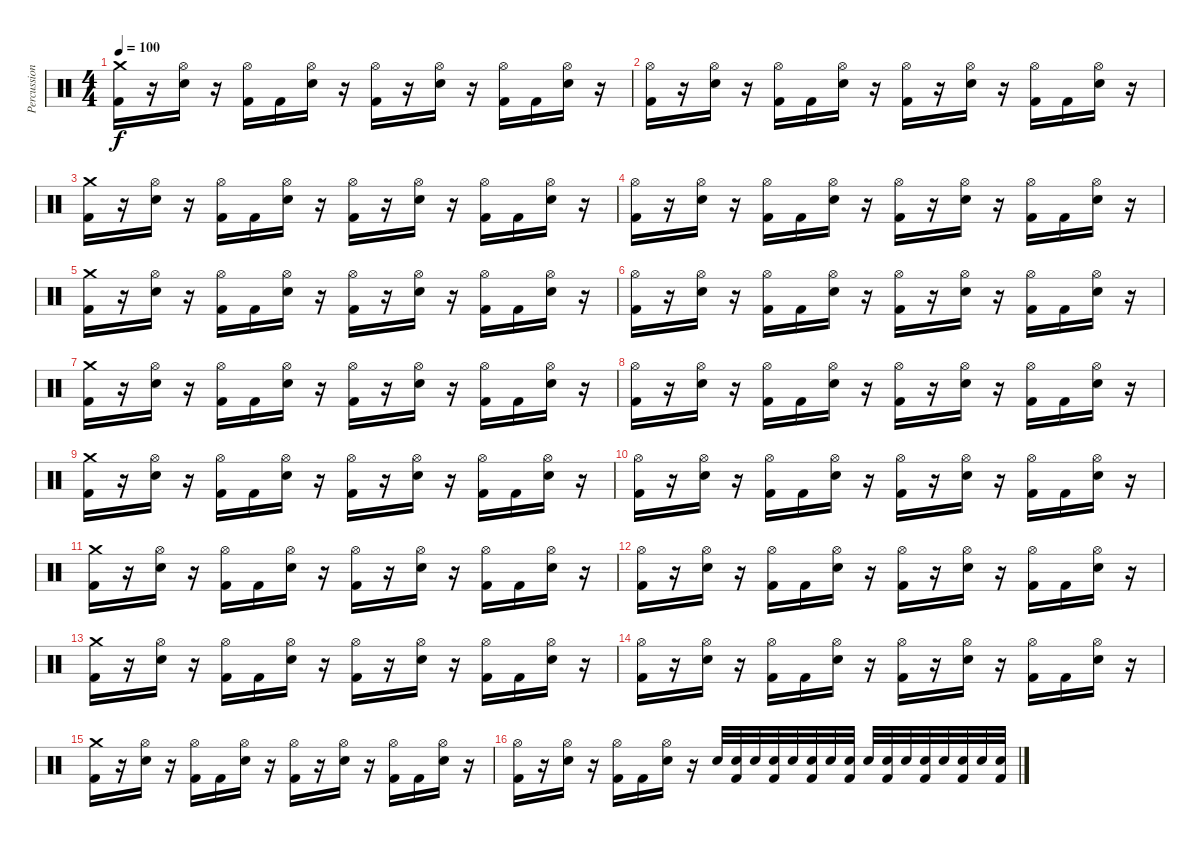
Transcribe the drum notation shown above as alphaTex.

\track ("Percussion" "Percussion") {instrument percussion}
\staff {score}
\articulation defaults
\ts (4 4)
\tempo 100
\clef neutral
\ks c
("Crash medium (hit)" "Kick (hit) 2").16{dy f} r.16 ("Hi-Hat (open)" "Electric Snare (hit)").16 r.16 ("Hi-Hat (open)" "Kick (hit) 2").16 "Kick (hit) 2".16 ("Hi-Hat (open)" "Electric Snare (hit)").16 r.16 ("Hi-Hat (open)" "Kick (hit) 2").16 r.16 ("Hi-Hat (open)" "Electric Snare (hit)").16 r.16 ("Hi-Hat (open)" "Kick (hit) 2").16 "Kick (hit) 2".16 ("Hi-Hat (open)" "Electric Snare (hit)").16 r.16 |
("Hi-Hat (open)" "Kick (hit) 2").16 r.16 ("Hi-Hat (open)" "Electric Snare (hit)").16 r.16 ("Hi-Hat (open)" "Kick (hit) 2").16 "Kick (hit) 2".16 ("Hi-Hat (open)" "Electric Snare (hit)").16 r.16 ("Hi-Hat (open)" "Kick (hit) 2").16 r.16 ("Hi-Hat (open)" "Electric Snare (hit)").16 r.16 ("Hi-Hat (open)" "Kick (hit) 2").16 "Kick (hit) 2".16 ("Hi-Hat (open)" "Electric Snare (hit)").16 r.16 |
("Crash medium (hit)" "Kick (hit) 2").16 r.16 ("Hi-Hat (open)" "Electric Snare (hit)").16 r.16 ("Hi-Hat (open)" "Kick (hit) 2").16 "Kick (hit) 2".16 ("Hi-Hat (open)" "Electric Snare (hit)").16 r.16 ("Hi-Hat (open)" "Kick (hit) 2").16 r.16 ("Hi-Hat (open)" "Electric Snare (hit)").16 r.16 ("Hi-Hat (open)" "Kick (hit) 2").16 "Kick (hit) 2".16 ("Hi-Hat (open)" "Electric Snare (hit)").16 r.16 |
("Hi-Hat (open)" "Kick (hit) 2").16 r.16 ("Hi-Hat (open)" "Electric Snare (hit)").16 r.16 ("Hi-Hat (open)" "Kick (hit) 2").16 "Kick (hit) 2".16 ("Hi-Hat (open)" "Electric Snare (hit)").16 r.16 ("Hi-Hat (open)" "Kick (hit) 2").16 r.16 ("Hi-Hat (open)" "Electric Snare (hit)").16 r.16 ("Hi-Hat (open)" "Kick (hit) 2").16 "Kick (hit) 2".16 ("Hi-Hat (open)" "Electric Snare (hit)").16 r.16 |
("Crash medium (hit)" "Kick (hit) 2").16 r.16 ("Hi-Hat (open)" "Electric Snare (hit)").16 r.16 ("Hi-Hat (open)" "Kick (hit) 2").16 "Kick (hit) 2".16 ("Hi-Hat (open)" "Electric Snare (hit)").16 r.16 ("Hi-Hat (open)" "Kick (hit) 2").16 r.16 ("Hi-Hat (open)" "Electric Snare (hit)").16 r.16 ("Hi-Hat (open)" "Kick (hit) 2").16 "Kick (hit) 2".16 ("Hi-Hat (open)" "Electric Snare (hit)").16 r.16 |
("Hi-Hat (open)" "Kick (hit) 2").16 r.16 ("Hi-Hat (open)" "Electric Snare (hit)").16 r.16 ("Hi-Hat (open)" "Kick (hit) 2").16 "Kick (hit) 2".16 ("Hi-Hat (open)" "Electric Snare (hit)").16 r.16 ("Hi-Hat (open)" "Kick (hit) 2").16 r.16 ("Hi-Hat (open)" "Electric Snare (hit)").16 r.16 ("Hi-Hat (open)" "Kick (hit) 2").16 "Kick (hit) 2".16 ("Hi-Hat (open)" "Electric Snare (hit)").16 r.16 |
("Crash medium (hit)" "Kick (hit) 2").16 r.16 ("Hi-Hat (open)" "Electric Snare (hit)").16 r.16 ("Hi-Hat (open)" "Kick (hit) 2").16 "Kick (hit) 2".16 ("Hi-Hat (open)" "Electric Snare (hit)").16 r.16 ("Hi-Hat (open)" "Kick (hit) 2").16 r.16 ("Hi-Hat (open)" "Electric Snare (hit)").16 r.16 ("Hi-Hat (open)" "Kick (hit) 2").16 "Kick (hit) 2".16 ("Hi-Hat (open)" "Electric Snare (hit)").16 r.16 |
("Hi-Hat (open)" "Kick (hit) 2").16 r.16 ("Hi-Hat (open)" "Electric Snare (hit)").16 r.16 ("Hi-Hat (open)" "Kick (hit) 2").16 "Kick (hit) 2".16 ("Hi-Hat (open)" "Electric Snare (hit)").16 r.16 ("Hi-Hat (open)" "Kick (hit) 2").16 r.16 ("Hi-Hat (open)" "Electric Snare (hit)").16 r.16 ("Hi-Hat (open)" "Kick (hit) 2").16 "Kick (hit) 2".16 ("Hi-Hat (open)" "Electric Snare (hit)").16 r.16 |
("Crash medium (hit)" "Kick (hit) 2").16 r.16 ("Hi-Hat (open)" "Electric Snare (hit)").16 r.16 ("Hi-Hat (open)" "Kick (hit) 2").16 "Kick (hit) 2".16 ("Hi-Hat (open)" "Electric Snare (hit)").16 r.16 ("Hi-Hat (open)" "Kick (hit) 2").16 r.16 ("Hi-Hat (open)" "Electric Snare (hit)").16 r.16 ("Hi-Hat (open)" "Kick (hit) 2").16 "Kick (hit) 2".16 ("Hi-Hat (open)" "Electric Snare (hit)").16 r.16 |
("Hi-Hat (open)" "Kick (hit) 2").16 r.16 ("Hi-Hat (open)" "Electric Snare (hit)").16 r.16 ("Hi-Hat (open)" "Kick (hit) 2").16 "Kick (hit) 2".16 ("Hi-Hat (open)" "Electric Snare (hit)").16 r.16 ("Hi-Hat (open)" "Kick (hit) 2").16 r.16 ("Hi-Hat (open)" "Electric Snare (hit)").16 r.16 ("Hi-Hat (open)" "Kick (hit) 2").16 "Kick (hit) 2".16 ("Hi-Hat (open)" "Electric Snare (hit)").16 r.16 |
("Crash medium (hit)" "Kick (hit) 2").16 r.16 ("Hi-Hat (open)" "Electric Snare (hit)").16 r.16 ("Hi-Hat (open)" "Kick (hit) 2").16 "Kick (hit) 2".16 ("Hi-Hat (open)" "Electric Snare (hit)").16 r.16 ("Hi-Hat (open)" "Kick (hit) 2").16 r.16 ("Hi-Hat (open)" "Electric Snare (hit)").16 r.16 ("Hi-Hat (open)" "Kick (hit) 2").16 "Kick (hit) 2".16 ("Hi-Hat (open)" "Electric Snare (hit)").16 r.16 |
("Hi-Hat (open)" "Kick (hit) 2").16 r.16 ("Hi-Hat (open)" "Electric Snare (hit)").16 r.16 ("Hi-Hat (open)" "Kick (hit) 2").16 "Kick (hit) 2".16 ("Hi-Hat (open)" "Electric Snare (hit)").16 r.16 ("Hi-Hat (open)" "Kick (hit) 2").16 r.16 ("Hi-Hat (open)" "Electric Snare (hit)").16 r.16 ("Hi-Hat (open)" "Kick (hit) 2").16 "Kick (hit) 2".16 ("Hi-Hat (open)" "Electric Snare (hit)").16 r.16 |
("Crash medium (hit)" "Kick (hit) 2").16 r.16 ("Hi-Hat (open)" "Electric Snare (hit)").16 r.16 ("Hi-Hat (open)" "Kick (hit) 2").16 "Kick (hit) 2".16 ("Hi-Hat (open)" "Electric Snare (hit)").16 r.16 ("Hi-Hat (open)" "Kick (hit) 2").16 r.16 ("Hi-Hat (open)" "Electric Snare (hit)").16 r.16 ("Hi-Hat (open)" "Kick (hit) 2").16 "Kick (hit) 2".16 ("Hi-Hat (open)" "Electric Snare (hit)").16 r.16 |
("Hi-Hat (open)" "Kick (hit) 2").16 r.16 ("Hi-Hat (open)" "Electric Snare (hit)").16 r.16 ("Hi-Hat (open)" "Kick (hit) 2").16 "Kick (hit) 2".16 ("Hi-Hat (open)" "Electric Snare (hit)").16 r.16 ("Hi-Hat (open)" "Kick (hit) 2").16 r.16 ("Hi-Hat (open)" "Electric Snare (hit)").16 r.16 ("Hi-Hat (open)" "Kick (hit) 2").16 "Kick (hit) 2".16 ("Hi-Hat (open)" "Electric Snare (hit)").16 r.16 |
("Crash medium (hit)" "Kick (hit) 2").16 r.16 ("Hi-Hat (open)" "Electric Snare (hit)").16 r.16 ("Hi-Hat (open)" "Kick (hit) 2").16 "Kick (hit) 2".16 ("Hi-Hat (open)" "Electric Snare (hit)").16 r.16 ("Hi-Hat (open)" "Kick (hit) 2").16 r.16 ("Hi-Hat (open)" "Electric Snare (hit)").16 r.16 ("Hi-Hat (open)" "Kick (hit) 2").16 "Kick (hit) 2".16 ("Hi-Hat (open)" "Electric Snare (hit)").16 r.16 |
("Hi-Hat (open)" "Kick (hit) 2").16 r.16 ("Hi-Hat (open)" "Electric Snare (hit)").16 r.16 ("Hi-Hat (open)" "Kick (hit) 2").16 "Kick (hit) 2".16 ("Hi-Hat (open)" "Electric Snare (hit)").16 r.16 "Electric Snare (hit)".32 ("Electric Snare (hit)" "Kick (hit) 2").32 "Electric Snare (hit)".32 ("Electric Snare (hit)" "Kick (hit) 2").32 "Electric Snare (hit)".32 ("Electric Snare (hit)" "Kick (hit) 2").32 "Electric Snare (hit)".32 ("Electric Snare (hit)" "Kick (hit) 2").32 "Electric Snare (hit)".32 ("Electric Snare (hit)" "Kick (hit) 2").32 "Electric Snare (hit)".32 ("Electric Snare (hit)" "Kick (hit) 2").32 "Electric Snare (hit)".32 ("Electric Snare (hit)" "Kick (hit) 2").32 "Electric Snare (hit)".32 ("Electric Snare (hit)" "Kick (hit) 2").32
